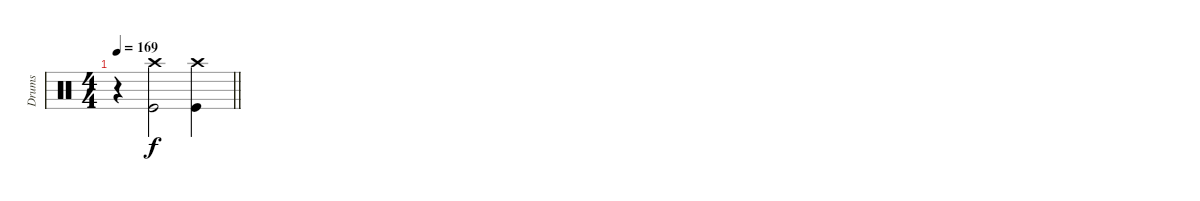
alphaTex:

\track ("Drums" "Drums") {instrument percussion}
\staff
\articulation defaults
\ts (4 4)
\tempo 169
\clef neutral
\barLineRight lightlight
\ks c
r.4{dy f} ("Crash high (hit)" "Kick (hit)").2 ("Crash high (hit)" "Kick (hit)").4
